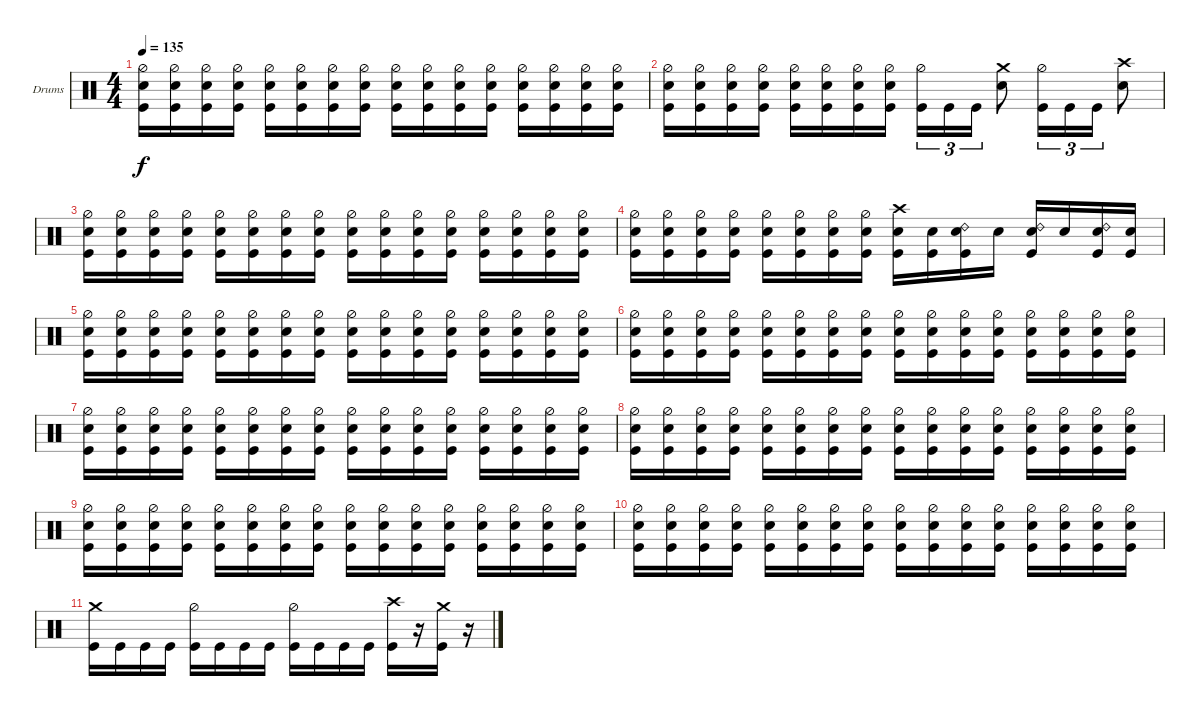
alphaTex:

\bracketExtendMode groupsimilarinstruments
\firstSystemTrackNameOrientation horizontal
\otherSystemsTrackNameOrientation horizontal
\track ("Drumkit" "Drums") {instrument percussion}
\staff {score}
\articulation defaults
\ts (4 4)
\tempo 135
\clef neutral
\ks c
("Hi-Hat (half)" "Snare (hit) 2" "Kick (hit)").16{dy f} ("Hi-Hat (half)" "Snare (hit) 2" "Kick (hit)").16 ("Hi-Hat (half)" "Snare (hit) 2" "Kick (hit)").16 ("Hi-Hat (half)" "Snare (hit) 2" "Kick (hit)").16 ("Hi-Hat (half)" "Snare (hit) 2" "Kick (hit)").16 ("Hi-Hat (half)" "Snare (hit) 2" "Kick (hit)").16 ("Hi-Hat (half)" "Snare (hit) 2" "Kick (hit)").16 ("Hi-Hat (half)" "Snare (hit) 2" "Kick (hit)").16 ("Hi-Hat (half)" "Snare (hit) 2" "Kick (hit)").16 ("Hi-Hat (half)" "Snare (hit) 2" "Kick (hit)").16 ("Hi-Hat (half)" "Snare (hit) 2" "Kick (hit)").16 ("Hi-Hat (half)" "Snare (hit) 2" "Kick (hit)").16 ("Hi-Hat (half)" "Snare (hit) 2" "Kick (hit)").16 ("Hi-Hat (half)" "Snare (hit) 2" "Kick (hit)").16 ("Hi-Hat (half)" "Snare (hit) 2" "Kick (hit)").16 ("Hi-Hat (half)" "Snare (hit) 2" "Kick (hit)").16 |
("Hi-Hat (half)" "Snare (hit) 2" "Kick (hit)").16 ("Hi-Hat (half)" "Snare (hit) 2" "Kick (hit)").16 ("Hi-Hat (half)" "Snare (hit) 2" "Kick (hit)").16 ("Hi-Hat (half)" "Snare (hit) 2" "Kick (hit)").16 ("Hi-Hat (half)" "Snare (hit) 2" "Kick (hit)").16 ("Hi-Hat (half)" "Snare (hit) 2" "Kick (hit)").16 ("Hi-Hat (half)" "Snare (hit) 2" "Kick (hit)").16 ("Hi-Hat (half)" "Snare (hit) 2" "Kick (hit)").16 ("Hi-Hat (half)" "Kick (hit)").16{tu (3 2)} "Kick (hit)".16{tu (3 2)} "Kick (hit)".16{tu (3 2)} ("Crash medium (hit)" "Snare (hit) 2").8 ("Hi-Hat (half)" "Kick (hit)").16{tu (3 2)} "Kick (hit)".16{tu (3 2)} "Kick (hit)".16{tu (3 2)} ("Crash high (hit)" "Snare (hit) 2").8 |
("Hi-Hat (half)" "Snare (hit) 2" "Kick (hit)").16 ("Hi-Hat (half)" "Snare (hit) 2" "Kick (hit)").16 ("Hi-Hat (half)" "Snare (hit) 2" "Kick (hit)").16 ("Hi-Hat (half)" "Snare (hit) 2" "Kick (hit)").16 ("Hi-Hat (half)" "Snare (hit) 2" "Kick (hit)").16 ("Hi-Hat (half)" "Snare (hit) 2" "Kick (hit)").16 ("Hi-Hat (half)" "Snare (hit) 2" "Kick (hit)").16 ("Hi-Hat (half)" "Snare (hit) 2" "Kick (hit)").16 ("Hi-Hat (half)" "Snare (hit) 2" "Kick (hit)").16 ("Hi-Hat (half)" "Snare (hit) 2" "Kick (hit)").16 ("Hi-Hat (half)" "Snare (hit) 2" "Kick (hit)").16 ("Hi-Hat (half)" "Snare (hit) 2" "Kick (hit)").16 ("Hi-Hat (half)" "Snare (hit) 2" "Kick (hit)").16 ("Hi-Hat (half)" "Snare (hit) 2" "Kick (hit)").16 ("Hi-Hat (half)" "Snare (hit) 2" "Kick (hit)").16 ("Hi-Hat (half)" "Snare (hit) 2" "Kick (hit)").16 |
("Hi-Hat (half)" "Snare (hit) 2" "Kick (hit)").16 ("Hi-Hat (half)" "Snare (hit) 2" "Kick (hit)").16 ("Hi-Hat (half)" "Snare (hit) 2" "Kick (hit)").16 ("Hi-Hat (half)" "Snare (hit) 2" "Kick (hit)").16 ("Hi-Hat (half)" "Snare (hit) 2" "Kick (hit)").16 ("Hi-Hat (half)" "Snare (hit) 2" "Kick (hit)").16 ("Hi-Hat (half)" "Snare (hit) 2" "Kick (hit)").16 ("Hi-Hat (half)" "Snare (hit) 2" "Kick (hit)").16 ("Crash high (hit)" "Snare (hit) 2" "Kick (hit)").16 ("Snare (hit) 2" "Kick (hit)").16 ("Ride (bell) 2" "Snare (hit) 2" "Kick (hit)").16 "Snare (hit) 2".16 ("Ride (bell) 2" "Snare (hit) 2" "Kick (hit)").16 "Snare (hit) 2".16 ("Ride (bell) 2" "Snare (hit) 2" "Kick (hit)").16 ("Snare (hit) 2" "Kick (hit)").16 |
("Hi-Hat (half)" "Snare (hit) 2" "Kick (hit)").16 ("Hi-Hat (half)" "Snare (hit) 2" "Kick (hit)").16 ("Hi-Hat (half)" "Snare (hit) 2" "Kick (hit)").16 ("Hi-Hat (half)" "Snare (hit) 2" "Kick (hit)").16 ("Hi-Hat (half)" "Snare (hit) 2" "Kick (hit)").16 ("Hi-Hat (half)" "Snare (hit) 2" "Kick (hit)").16 ("Hi-Hat (half)" "Snare (hit) 2" "Kick (hit)").16 ("Hi-Hat (half)" "Snare (hit) 2" "Kick (hit)").16 ("Hi-Hat (half)" "Snare (hit) 2" "Kick (hit)").16 ("Hi-Hat (half)" "Snare (hit) 2" "Kick (hit)").16 ("Hi-Hat (half)" "Snare (hit) 2" "Kick (hit)").16 ("Hi-Hat (half)" "Snare (hit) 2" "Kick (hit)").16 ("Hi-Hat (half)" "Snare (hit) 2" "Kick (hit)").16 ("Hi-Hat (half)" "Snare (hit) 2" "Kick (hit)").16 ("Hi-Hat (half)" "Snare (hit) 2" "Kick (hit)").16 ("Hi-Hat (half)" "Snare (hit) 2" "Kick (hit)").16 |
("Hi-Hat (half)" "Snare (hit) 2" "Kick (hit)").16 ("Hi-Hat (half)" "Snare (hit) 2" "Kick (hit)").16 ("Hi-Hat (half)" "Snare (hit) 2" "Kick (hit)").16 ("Hi-Hat (half)" "Snare (hit) 2" "Kick (hit)").16 ("Hi-Hat (half)" "Snare (hit) 2" "Kick (hit)").16 ("Hi-Hat (half)" "Snare (hit) 2" "Kick (hit)").16 ("Hi-Hat (half)" "Snare (hit) 2" "Kick (hit)").16 ("Hi-Hat (half)" "Snare (hit) 2" "Kick (hit)").16 ("Hi-Hat (half)" "Snare (hit) 2" "Kick (hit)").16 ("Hi-Hat (half)" "Snare (hit) 2" "Kick (hit)").16 ("Hi-Hat (half)" "Snare (hit) 2" "Kick (hit)").16 ("Hi-Hat (half)" "Snare (hit) 2" "Kick (hit)").16 ("Hi-Hat (half)" "Snare (hit) 2" "Kick (hit)").16 ("Hi-Hat (half)" "Snare (hit) 2" "Kick (hit)").16 ("Hi-Hat (half)" "Snare (hit) 2" "Kick (hit)").16 ("Hi-Hat (half)" "Snare (hit) 2" "Kick (hit)").16 |
("Hi-Hat (half)" "Snare (hit) 2" "Kick (hit)").16 ("Hi-Hat (half)" "Snare (hit) 2" "Kick (hit)").16 ("Hi-Hat (half)" "Snare (hit) 2" "Kick (hit)").16 ("Hi-Hat (half)" "Snare (hit) 2" "Kick (hit)").16 ("Hi-Hat (half)" "Snare (hit) 2" "Kick (hit)").16 ("Hi-Hat (half)" "Snare (hit) 2" "Kick (hit)").16 ("Hi-Hat (half)" "Snare (hit) 2" "Kick (hit)").16 ("Hi-Hat (half)" "Snare (hit) 2" "Kick (hit)").16 ("Hi-Hat (half)" "Snare (hit) 2" "Kick (hit)").16 ("Hi-Hat (half)" "Snare (hit) 2" "Kick (hit)").16 ("Hi-Hat (half)" "Snare (hit) 2" "Kick (hit)").16 ("Hi-Hat (half)" "Snare (hit) 2" "Kick (hit)").16 ("Hi-Hat (half)" "Snare (hit) 2" "Kick (hit)").16 ("Hi-Hat (half)" "Snare (hit) 2" "Kick (hit)").16 ("Hi-Hat (half)" "Snare (hit) 2" "Kick (hit)").16 ("Hi-Hat (half)" "Snare (hit) 2" "Kick (hit)").16 |
("Hi-Hat (half)" "Snare (hit) 2" "Kick (hit)").16 ("Hi-Hat (half)" "Snare (hit) 2" "Kick (hit)").16 ("Hi-Hat (half)" "Snare (hit) 2" "Kick (hit)").16 ("Hi-Hat (half)" "Snare (hit) 2" "Kick (hit)").16 ("Hi-Hat (half)" "Snare (hit) 2" "Kick (hit)").16 ("Hi-Hat (half)" "Snare (hit) 2" "Kick (hit)").16 ("Hi-Hat (half)" "Snare (hit) 2" "Kick (hit)").16 ("Hi-Hat (half)" "Snare (hit) 2" "Kick (hit)").16 ("Hi-Hat (half)" "Snare (hit) 2" "Kick (hit)").16 ("Hi-Hat (half)" "Snare (hit) 2" "Kick (hit)").16 ("Hi-Hat (half)" "Snare (hit) 2" "Kick (hit)").16 ("Hi-Hat (half)" "Snare (hit) 2" "Kick (hit)").16 ("Hi-Hat (half)" "Snare (hit) 2" "Kick (hit)").16 ("Hi-Hat (half)" "Snare (hit) 2" "Kick (hit)").16 ("Hi-Hat (half)" "Snare (hit) 2" "Kick (hit)").16 ("Hi-Hat (half)" "Snare (hit) 2" "Kick (hit)").16 |
("Hi-Hat (half)" "Snare (hit) 2" "Kick (hit)").16 ("Hi-Hat (half)" "Snare (hit) 2" "Kick (hit)").16 ("Hi-Hat (half)" "Snare (hit) 2" "Kick (hit)").16 ("Hi-Hat (half)" "Snare (hit) 2" "Kick (hit)").16 ("Hi-Hat (half)" "Snare (hit) 2" "Kick (hit)").16 ("Hi-Hat (half)" "Snare (hit) 2" "Kick (hit)").16 ("Hi-Hat (half)" "Snare (hit) 2" "Kick (hit)").16 ("Hi-Hat (half)" "Snare (hit) 2" "Kick (hit)").16 ("Hi-Hat (half)" "Snare (hit) 2" "Kick (hit)").16 ("Hi-Hat (half)" "Snare (hit) 2" "Kick (hit)").16 ("Hi-Hat (half)" "Snare (hit) 2" "Kick (hit)").16 ("Hi-Hat (half)" "Snare (hit) 2" "Kick (hit)").16 ("Hi-Hat (half)" "Snare (hit) 2" "Kick (hit)").16 ("Hi-Hat (half)" "Snare (hit) 2" "Kick (hit)").16 ("Hi-Hat (half)" "Snare (hit) 2" "Kick (hit)").16 ("Hi-Hat (half)" "Snare (hit) 2" "Kick (hit)").16 |
("Hi-Hat (half)" "Snare (hit) 2" "Kick (hit)").16 ("Hi-Hat (half)" "Snare (hit) 2" "Kick (hit)").16 ("Hi-Hat (half)" "Snare (hit) 2" "Kick (hit)").16 ("Hi-Hat (half)" "Snare (hit) 2" "Kick (hit)").16 ("Hi-Hat (half)" "Snare (hit) 2" "Kick (hit)").16 ("Hi-Hat (half)" "Snare (hit) 2" "Kick (hit)").16 ("Hi-Hat (half)" "Snare (hit) 2" "Kick (hit)").16 ("Hi-Hat (half)" "Snare (hit) 2" "Kick (hit)").16 ("Hi-Hat (half)" "Snare (hit) 2" "Kick (hit)").16 ("Hi-Hat (half)" "Snare (hit) 2" "Kick (hit)").16 ("Hi-Hat (half)" "Snare (hit) 2" "Kick (hit)").16 ("Hi-Hat (half)" "Snare (hit) 2" "Kick (hit)").16 ("Hi-Hat (half)" "Snare (hit) 2" "Kick (hit)").16 ("Hi-Hat (half)" "Snare (hit) 2" "Kick (hit)").16 ("Hi-Hat (half)" "Snare (hit) 2" "Kick (hit)").16 ("Hi-Hat (half)" "Snare (hit) 2" "Kick (hit)").16 |
("Kick (hit)" "Crash medium (hit)").16 "Kick (hit)".16 "Kick (hit)".16 "Kick (hit)".16 ("Kick (hit)" "Hi-Hat (half)").16 "Kick (hit)".16 "Kick (hit)".16 "Kick (hit)".16 ("Kick (hit)" "Hi-Hat (half)").16 "Kick (hit)".16 "Kick (hit)".16 "Kick (hit)".16 ("Kick (hit)" "Crash high (hit)").16 r.16 ("Kick (hit)" "Crash medium (hit)").16 r.16
